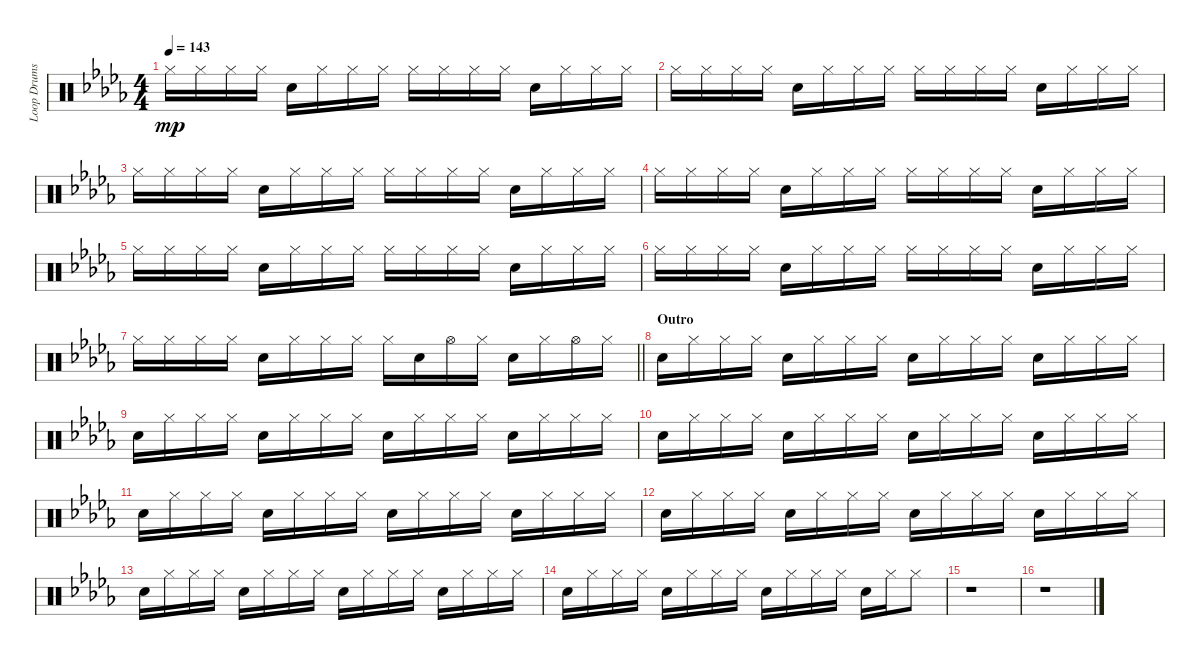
\track ("Loop Drums" "Loop Drums") {instrument percussion}
\staff {score}
\articulation defaults
\ts (4 4)
\tempo 143
\clef neutral
\ks db "Hi-Hat (closed)".16{dy mp} "Hi-Hat (closed)".16 "Hi-Hat (closed)".16 "Hi-Hat (closed)".16 "Electric Snare (hit)".16 "Hi-Hat (closed)".16 "Hi-Hat (closed)".16 "Hi-Hat (closed)".16 "Hi-Hat (closed)".16 "Hi-Hat (closed)".16 "Hi-Hat (closed)".16 "Hi-Hat (closed)".16 "Electric Snare (hit)".16 "Hi-Hat (closed)".16 "Hi-Hat (closed)".16 "Hi-Hat (closed)".16
|
"Hi-Hat (closed)".16 "Hi-Hat (closed)".16 "Hi-Hat (closed)".16 "Hi-Hat (closed)".16 "Electric Snare (hit)".16 "Hi-Hat (closed)".16 "Hi-Hat (closed)".16 "Hi-Hat (closed)".16 "Hi-Hat (closed)".16 "Hi-Hat (closed)".16 "Hi-Hat (closed)".16 "Hi-Hat (closed)".16 "Electric Snare (hit)".16 "Hi-Hat (closed)".16 "Hi-Hat (closed)".16 "Hi-Hat (closed)".16 |
"Hi-Hat (closed)".16 "Hi-Hat (closed)".16 "Hi-Hat (closed)".16 "Hi-Hat (closed)".16 "Electric Snare (hit)".16 "Hi-Hat (closed)".16 "Hi-Hat (closed)".16 "Hi-Hat (closed)".16 "Hi-Hat (closed)".16 "Hi-Hat (closed)".16 "Hi-Hat (closed)".16 "Hi-Hat (closed)".16 "Electric Snare (hit)".16 "Hi-Hat (closed)".16 "Hi-Hat (closed)".16 "Hi-Hat (closed)".16 |
"Hi-Hat (closed)".16 "Hi-Hat (closed)".16 "Hi-Hat (closed)".16 "Hi-Hat (closed)".16 "Electric Snare (hit)".16 "Hi-Hat (closed)".16 "Hi-Hat (closed)".16 "Hi-Hat (closed)".16 "Hi-Hat (closed)".16 "Hi-Hat (closed)".16 "Hi-Hat (closed)".16 "Hi-Hat (closed)".16 "Electric Snare (hit)".16 "Hi-Hat (closed)".16 "Hi-Hat (closed)".16 "Hi-Hat (closed)".16 |
"Hi-Hat (closed)".16 "Hi-Hat (closed)".16 "Hi-Hat (closed)".16 "Hi-Hat (closed)".16 "Electric Snare (hit)".16 "Hi-Hat (closed)".16 "Hi-Hat (closed)".16 "Hi-Hat (closed)".16 "Hi-Hat (closed)".16 "Hi-Hat (closed)".16 "Hi-Hat (closed)".16 "Hi-Hat (closed)".16 "Electric Snare (hit)".16 "Hi-Hat (closed)".16 "Hi-Hat (closed)".16 "Hi-Hat (closed)".16 |
"Hi-Hat (closed)".16 "Hi-Hat (closed)".16 "Hi-Hat (closed)".16 "Hi-Hat (closed)".16 "Electric Snare (hit)".16 "Hi-Hat (closed)".16 "Hi-Hat (closed)".16 "Hi-Hat (closed)".16 "Hi-Hat (closed)".16 "Hi-Hat (closed)".16 "Hi-Hat (closed)".16 "Hi-Hat (closed)".16 "Electric Snare (hit)".16 "Hi-Hat (closed)".16 "Hi-Hat (closed)".16 "Hi-Hat (closed)".16 |
\barLineRight lightlight "Hi-Hat (closed)".16 "Hi-Hat (closed)".16 "Hi-Hat (closed)".16 "Hi-Hat (closed)".16 "Electric Snare (hit)".16 "Hi-Hat (closed)".16 "Hi-Hat (closed)".16 "Hi-Hat (closed)".16 "Hi-Hat (closed)".16 "Electric Snare (hit)".16 "Hi-Hat (open)".16 "Hi-Hat (closed)".16 "Electric Snare (hit)".16 "Hi-Hat (closed)".16 "Hi-Hat (open)".16 "Hi-Hat (closed)".16
|
\section ("" "Outro")
"Electric Snare (hit)".16 "Hi-Hat (closed)".16 "Hi-Hat (closed)".16 "Hi-Hat (closed)".16 "Electric Snare (hit)".16 "Hi-Hat (closed)".16 "Hi-Hat (closed)".16 "Hi-Hat (closed)".16 "Electric Snare (hit)".16 "Hi-Hat (closed)".16 "Hi-Hat (closed)".16 "Hi-Hat (closed)".16 "Electric Snare (hit)".16 "Hi-Hat (closed)".16 "Hi-Hat (closed)".16 "Hi-Hat (closed)".16 |
"Electric Snare (hit)".16 "Hi-Hat (closed)".16 "Hi-Hat (closed)".16 "Hi-Hat (closed)".16 "Electric Snare (hit)".16 "Hi-Hat (closed)".16 "Hi-Hat (closed)".16 "Hi-Hat (closed)".16 "Electric Snare (hit)".16 "Hi-Hat (closed)".16 "Hi-Hat (closed)".16 "Hi-Hat (closed)".16 "Electric Snare (hit)".16 "Hi-Hat (closed)".16 "Hi-Hat (closed)".16 "Hi-Hat (closed)".16 |
"Electric Snare (hit)".16 "Hi-Hat (closed)".16 "Hi-Hat (closed)".16 "Hi-Hat (closed)".16 "Electric Snare (hit)".16 "Hi-Hat (closed)".16 "Hi-Hat (closed)".16 "Hi-Hat (closed)".16 "Electric Snare (hit)".16 "Hi-Hat (closed)".16 "Hi-Hat (closed)".16 "Hi-Hat (closed)".16 "Electric Snare (hit)".16 "Hi-Hat (closed)".16 "Hi-Hat (closed)".16 "Hi-Hat (closed)".16 |
"Electric Snare (hit)".16 "Hi-Hat (closed)".16 "Hi-Hat (closed)".16 "Hi-Hat (closed)".16 "Electric Snare (hit)".16 "Hi-Hat (closed)".16 "Hi-Hat (closed)".16 "Hi-Hat (closed)".16 "Electric Snare (hit)".16 "Hi-Hat (closed)".16 "Hi-Hat (closed)".16 "Hi-Hat (closed)".16 "Electric Snare (hit)".16 "Hi-Hat (closed)".16 "Hi-Hat (closed)".16 "Hi-Hat (closed)".16 |
"Electric Snare (hit)".16 "Hi-Hat (closed)".16 "Hi-Hat (closed)".16 "Hi-Hat (closed)".16 "Electric Snare (hit)".16 "Hi-Hat (closed)".16 "Hi-Hat (closed)".16 "Hi-Hat (closed)".16 "Electric Snare (hit)".16 "Hi-Hat (closed)".16 "Hi-Hat (closed)".16 "Hi-Hat (closed)".16 "Electric Snare (hit)".16 "Hi-Hat (closed)".16 "Hi-Hat (closed)".16 "Hi-Hat (closed)".16 |
"Electric Snare (hit)".16 "Hi-Hat (closed)".16 "Hi-Hat (closed)".16 "Hi-Hat (closed)".16 "Electric Snare (hit)".16 "Hi-Hat (closed)".16 "Hi-Hat (closed)".16 "Hi-Hat (closed)".16 "Electric Snare (hit)".16 "Hi-Hat (closed)".16 "Hi-Hat (closed)".16 "Hi-Hat (closed)".16 "Electric Snare (hit)".16 "Hi-Hat (closed)".16 "Hi-Hat (closed)".16 "Hi-Hat (closed)".16 |
"Electric Snare (hit)".16 "Hi-Hat (closed)".16 "Hi-Hat (closed)".16 "Hi-Hat (closed)".16 "Electric Snare (hit)".16 "Hi-Hat (closed)".16 "Hi-Hat (closed)".16 "Hi-Hat (closed)".16 "Electric Snare (hit)".16 "Hi-Hat (closed)".16 "Hi-Hat (closed)".16 "Hi-Hat (closed)".16 "Electric Snare (hit)".16 "Hi-Hat (closed)".16 "Hi-Hat (closed)".8 |
r.1 |
r.1
